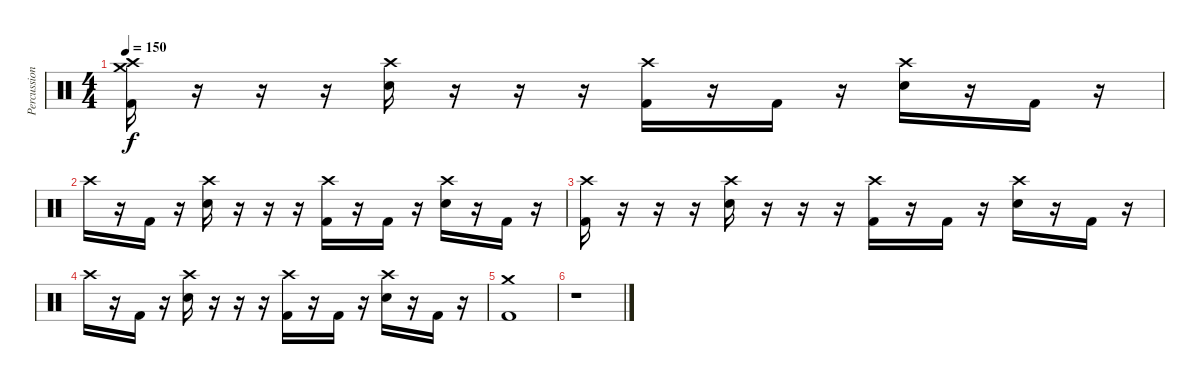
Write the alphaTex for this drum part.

\track ("Percussion" "Percussion") {instrument percussion}
\staff {score}
\articulation defaults
\ts (4 4)
\tempo 150
\clef neutral
\ks c
("Crash high (hit)" "Crash medium (hit)" "Kick (hit) 2").16{dy f} r.16 r.16 r.16 ("Crash high (hit)" "Electric Snare (hit)").16 r.16 r.16 r.16 ("Crash high (hit)" "Kick (hit) 2").16 r.16 "Kick (hit) 2".16 r.16 ("Crash high (hit)" "Electric Snare (hit)").16 r.16 "Kick (hit) 2".16 r.16 |
"Crash high (hit)".16 r.16 "Kick (hit) 2".16 r.16 ("Crash high (hit)" "Electric Snare (hit)").16 r.16 r.16 r.16 ("Crash high (hit)" "Kick (hit) 2").16 r.16 "Kick (hit) 2".16 r.16 ("Crash high (hit)" "Electric Snare (hit)").16 r.16 "Kick (hit) 2".16 r.16 |
("Crash high (hit)" "Kick (hit) 2").16 r.16 r.16 r.16 ("Crash high (hit)" "Electric Snare (hit)").16 r.16 r.16 r.16 ("Crash high (hit)" "Kick (hit) 2").16 r.16 "Kick (hit) 2".16 r.16 ("Crash high (hit)" "Electric Snare (hit)").16 r.16 "Kick (hit) 2".16 r.16 |
"Crash high (hit)".16 r.16 "Kick (hit) 2".16 r.16 ("Crash high (hit)" "Electric Snare (hit)").16 r.16 r.16 r.16 ("Crash high (hit)" "Kick (hit) 2").16 r.16 "Kick (hit) 2".16 r.16 ("Crash high (hit)" "Electric Snare (hit)").16 r.16 "Kick (hit) 2".16 r.16 |
("Crash medium (hit)" "Kick (hit) 2").1 |
r.1
